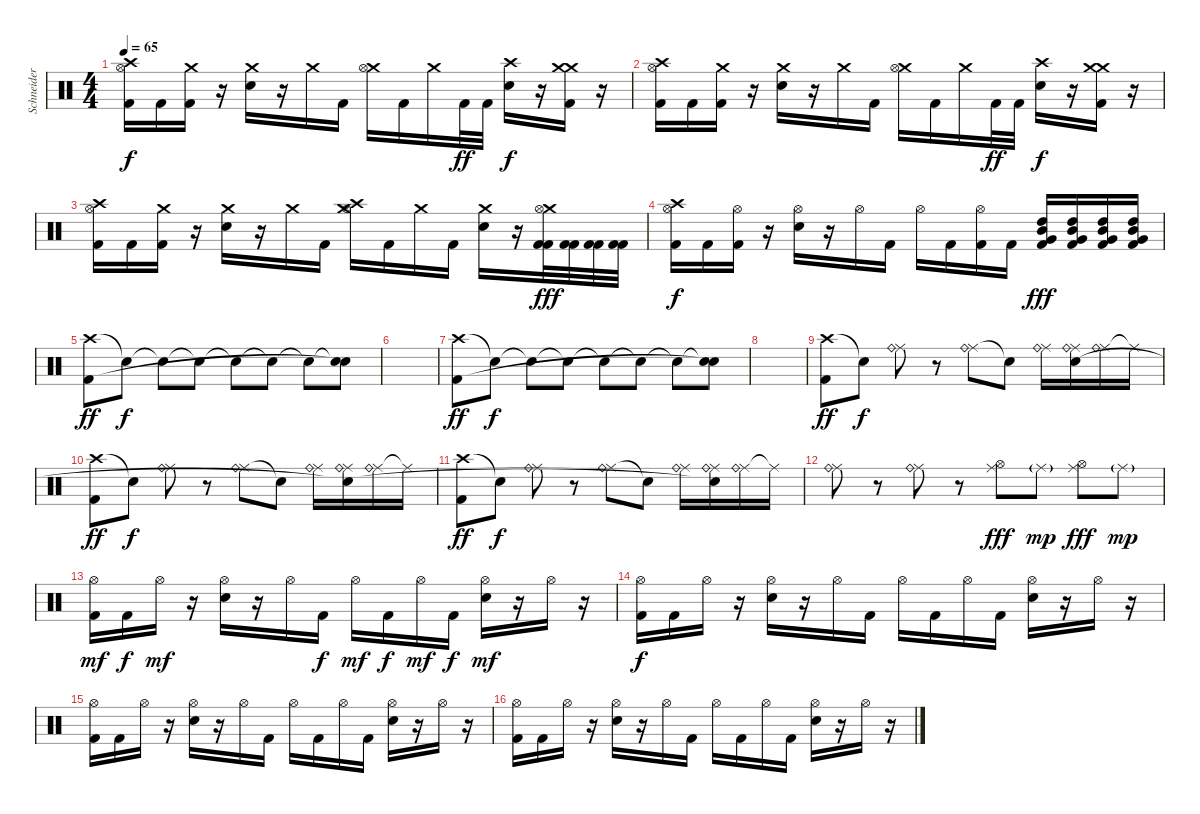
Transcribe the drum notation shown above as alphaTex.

\track ("Schneider" "Schneider") {instrument percussion}
\staff {score}
\articulation defaults
\ts (4 4)
\tempo 65
\clef neutral
\ks c
("Crash high (hit)" "Hi-Hat (open)" "Kick (hit) 2").16{dy f} "Kick (hit) 2".16 ("Crash medium (hit)" "Kick (hit) 2").16 r.16 ("Crash medium (hit)" "Electric Snare (hit)").16 r.16 "Crash medium (hit)".16 "Kick (hit) 2".16 ("Crash medium (hit)" "Hi-Hat (open)").16 "Kick (hit) 2".16 "Crash medium (hit)".16 "Kick (hit) 2".32{dy ff} "Kick (hit) 2".32 ("Crash high (hit)" "Electric Snare (hit)").16{dy f} r.16 ("Crash medium (hit)" "Crash medium (hit)" "Kick (hit) 2").16 r.16 |
("Crash high (hit)" "Hi-Hat (open)" "Kick (hit) 2").16 "Kick (hit) 2".16 ("Crash medium (hit)" "Kick (hit) 2").16 r.16 ("Crash medium (hit)" "Electric Snare (hit)").16 r.16 "Crash medium (hit)".16 "Kick (hit) 2".16 ("Crash medium (hit)" "Hi-Hat (open)").16 "Kick (hit) 2".16 "Crash medium (hit)".16 "Kick (hit) 2".32{dy ff} "Kick (hit) 2".32 ("Crash high (hit)" "Electric Snare (hit)").16{dy f} r.16 ("Crash medium (hit)" "Crash medium (hit)" "Kick (hit) 2").16 r.16 |
("Crash high (hit)" "Hi-Hat (open)" "Kick (hit) 2").16 "Kick (hit) 2".16 ("Crash medium (hit)" "Kick (hit) 2").16 r.16 ("Crash medium (hit)" "Electric Snare (hit)").16 r.16 "Crash medium (hit)".16 "Kick (hit) 2".16 ("Crash medium (hit)" "Crash high (hit)" "Hi-Hat (open)").16 "Kick (hit) 2".16 "Crash medium (hit)".16 "Kick (hit) 2".16 ("Crash medium (hit)" "Electric Snare (hit)").16 r.16 ("Crash medium (hit)" "Hi-Hat (open)" "Kick (hit) 2" "Kick (hit) 2").32{dy fff} ("Kick (hit) 2" "Kick (hit) 2").32 ("Kick (hit) 2" "Kick (hit) 2").32 ("Kick (hit) 2" "Kick (hit) 2").32 |
("Crash high (hit)" "Hi-Hat (open)" "Kick (hit) 2").16{dy f} "Kick (hit) 2".16 ("Hi-Hat (open)" "Kick (hit) 2").16 r.16 ("Hi-Hat (open)" "Electric Snare (hit)").16 r.16 "Hi-Hat (open)".16 "Kick (hit) 2".16 "Hi-Hat (open)".16 "Kick (hit) 2".16 ("Hi-Hat (open)" "Kick (hit) 2").16 "Kick (hit) 2".16 ("Kick (hit) 2" "Mid Tom (hit)" "High Tom (hit)" "Very Low Tom (hit)").16{dy fff} ("Kick (hit) 2" "Mid Tom (hit)" "High Tom (hit)" "Very Low Tom (hit)").16 ("Kick (hit) 2" "Mid Tom (hit)" "High Tom (hit)" "Very Low Tom (hit)").16 ("Kick (hit) 2" "Mid Tom (hit)" "High Tom (hit)" "Very Low Tom (hit)").16 |
("Crash high (hit)" "Kick (hit) 2").8{dy ff} "Snare (hit)"{t}.8{dy f} "Snare (hit)"{t}.8 "Snare (hit)"{t}.8 "Snare (hit)"{t}.8 "Snare (hit)"{t}.8 "Snare (hit)"{t}.8 ("Snare (hit)"{t} "Snare (hit)"{t}).8 |
|
("Crash high (hit)" "Kick (hit) 2").8{dy ff} "Snare (hit)"{t}.8{dy f} "Snare (hit)"{t}.8 "Snare (hit)"{t}.8 "Snare (hit)"{t}.8 "Snare (hit)"{t}.8 "Snare (hit)"{t}.8 ("Snare (hit)"{t} "Snare (hit)"{t}).8 |
|
("Crash high (hit)" "Kick (hit) 2").8{dy ff} "Snare (hit)"{t}.8{dy f} ("Ride (middle)" "Ride (bell)").8 r.8 ("Ride (middle)" "Ride (bell)").8 "Snare (hit)"{t}.8 ("Ride (middle)" "Ride (bell)").16 ("Ride (middle)" "Ride (bell)" "Snare (hit)").16 ("Ride (middle)" "Ride (bell)").16 "Ride (middle)"{t}.16 |
("Crash high (hit)" "Kick (hit) 2").8{dy ff} "Snare (hit)"{t}.8{dy f} ("Ride (middle)" "Ride (bell)").8 r.8 ("Ride (middle)" "Ride (bell)").8 "Snare (hit)"{t}.8 ("Ride (middle)" "Ride (bell)").16 ("Ride (middle)" "Ride (bell)" "Snare (hit)"{t}).16 ("Ride (middle)" "Ride (bell)").16 "Ride (middle)"{t}.16 |
("Crash high (hit)" "Kick (hit) 2").8{dy ff} "Snare (hit)"{t}.8{dy f} ("Ride (middle)" "Ride (bell)").8 r.8 ("Ride (middle)" "Ride (bell)").8 "Snare (hit)"{t}.8 ("Ride (middle)" "Ride (bell)").16 ("Ride (middle)" "Ride (bell)" "Snare (hit)"{t}).16 ("Ride (middle)" "Ride (bell)").16 "Ride (middle)"{t}.16 |
("Ride (middle)" "Ride (bell)").8 r.8 ("Ride (middle)" "Ride (bell)").8 r.8 ("Hi-Hat (open)" "Ride (middle)").8{dy fff} "Ride (middle)"{g}.8{dy mp} ("Hi-Hat (open)" "Ride (middle)").8{dy fff} "Ride (middle)"{g}.8{dy mp} |
("Hi-Hat (open)" "Kick (hit) 2").16{dy mf} "Kick (hit) 2".16{dy f} "Hi-Hat (open)".16{dy mf} r.16 ("Hi-Hat (open)" "Electric Snare (hit)").16 r.16 "Hi-Hat (open)".16 "Kick (hit) 2".16{dy f} "Hi-Hat (open)".16{dy mf} "Kick (hit) 2".16{dy f} "Hi-Hat (open)".16{dy mf} "Kick (hit) 2".16{dy f} ("Hi-Hat (open)" "Electric Snare (hit)").16{dy mf} r.16 "Hi-Hat (open)".16 r.16 |
("Hi-Hat (open)" "Kick (hit) 2").16{dy f} "Kick (hit) 2".16 "Hi-Hat (open)".16 r.16 ("Hi-Hat (open)" "Electric Snare (hit)").16 r.16 "Hi-Hat (open)".16 "Kick (hit) 2".16 "Hi-Hat (open)".16 "Kick (hit) 2".16 "Hi-Hat (open)".16 "Kick (hit) 2".16 ("Hi-Hat (open)" "Electric Snare (hit)").16 r.16 "Hi-Hat (open)".16 r.16 |
("Hi-Hat (open)" "Kick (hit) 2").16 "Kick (hit) 2".16 "Hi-Hat (open)".16 r.16 ("Hi-Hat (open)" "Electric Snare (hit)").16 r.16 "Hi-Hat (open)".16 "Kick (hit) 2".16 "Hi-Hat (open)".16 "Kick (hit) 2".16 "Hi-Hat (open)".16 "Kick (hit) 2".16 ("Hi-Hat (open)" "Electric Snare (hit)").16 r.16 "Hi-Hat (open)".16 r.16 |
("Hi-Hat (open)" "Kick (hit) 2").16 "Kick (hit) 2".16 "Hi-Hat (open)".16 r.16 ("Hi-Hat (open)" "Electric Snare (hit)").16 r.16 "Hi-Hat (open)".16 "Kick (hit) 2".16 "Hi-Hat (open)".16 "Kick (hit) 2".16 "Hi-Hat (open)".16 "Kick (hit) 2".16 ("Hi-Hat (open)" "Electric Snare (hit)").16 r.16 "Hi-Hat (open)".16 r.16
